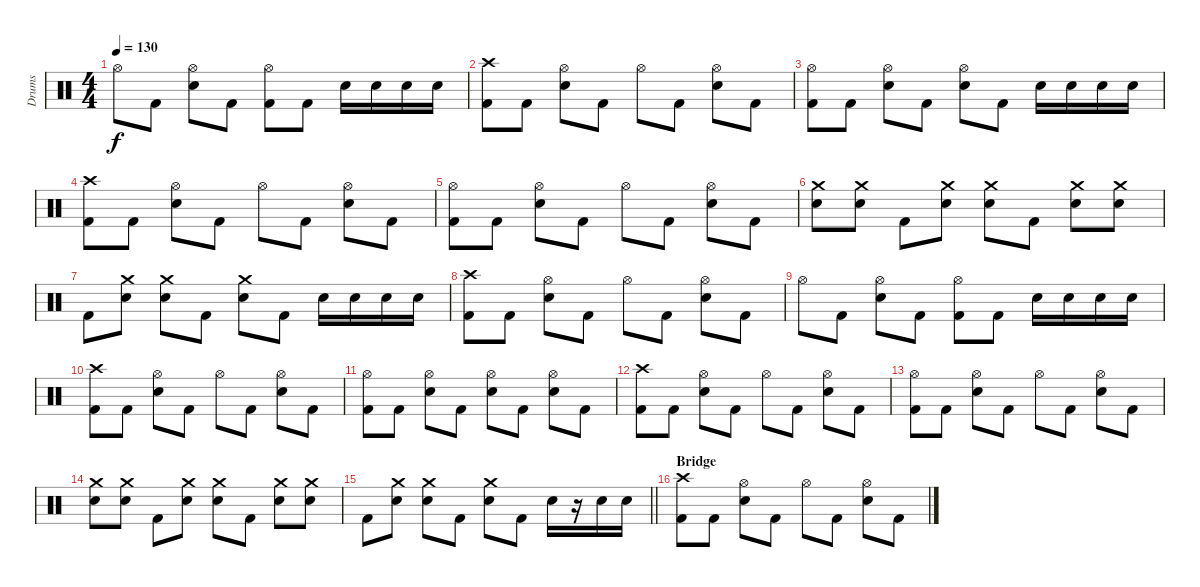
\track ("Drums" "Drums") {instrument percussion}
\staff {score}
\articulation defaults
\ts (4 4)
\tempo 130
\clef neutral
\ks c "Hi-Hat (open)".8{dy f} "Kick (hit) 2".8
("Hi-Hat (open)" "Electric Snare (hit)").8 "Kick (hit) 2".8 ("Hi-Hat (open)" "Kick (hit) 2").8 "Kick (hit) 2".8 "Electric Snare (hit)".16 "Electric Snare (hit)".16 "Electric Snare (hit)".16 "Electric Snare (hit)".16 |
("Crash high (hit)" "Kick (hit) 2").8 "Kick (hit) 2".8 ("Hi-Hat (open)" "Electric Snare (hit)").8 "Kick (hit) 2".8 "Hi-Hat (open)".8 "Kick (hit) 2".8 ("Hi-Hat (open)" "Electric Snare (hit)").8 "Kick (hit) 2".8 |
("Hi-Hat (open)" "Kick (hit) 2").8 "Kick (hit) 2".8 ("Hi-Hat (open)" "Electric Snare (hit)").8 "Kick (hit) 2".8 ("Hi-Hat (open)" "Electric Snare (hit)").8 "Kick (hit) 2".8 "Electric Snare (hit)".16 "Electric Snare (hit)".16 "Electric Snare (hit)".16 "Electric Snare (hit)".16 |
("Crash high (hit)" "Kick (hit) 2").8 "Kick (hit) 2".8 ("Hi-Hat (open)" "Electric Snare (hit)").8 "Kick (hit) 2".8 "Hi-Hat (open)".8 "Kick (hit) 2".8 ("Hi-Hat (open)" "Electric Snare (hit)").8 "Kick (hit) 2".8 |
("Hi-Hat (open)" "Kick (hit) 2").8 "Kick (hit) 2".8 ("Hi-Hat (open)" "Electric Snare (hit)").8 "Kick (hit) 2".8 "Hi-Hat (open)".8 "Kick (hit) 2".8 ("Hi-Hat (open)" "Electric Snare (hit)").8 "Kick (hit) 2".8 |
("Crash medium (hit)" "Electric Snare (hit)").8 ("Crash medium (hit)" "Electric Snare (hit)").8 "Kick (hit) 2".8 ("Crash medium (hit)" "Electric Snare (hit)").8 ("Crash medium (hit)" "Electric Snare (hit)").8 "Kick (hit) 2".8 ("Crash medium (hit)" "Electric Snare (hit)").8 ("Crash medium (hit)" "Electric Snare (hit)").8 |
"Kick (hit) 2".8 ("Crash medium (hit)" "Electric Snare (hit)").8 ("Crash medium (hit)" "Electric Snare (hit)").8 "Kick (hit) 2".8 ("Crash medium (hit)" "Electric Snare (hit)").8 "Kick (hit) 2".8 "Electric Snare (hit)".16 "Electric Snare (hit)".16 "Electric Snare (hit)".16 "Electric Snare (hit)".16 |
("Crash high (hit)" "Kick (hit) 2").8 "Kick (hit) 2".8 ("Hi-Hat (open)" "Electric Snare (hit)").8 "Kick (hit) 2".8 "Hi-Hat (open)".8 "Kick (hit) 2".8 ("Hi-Hat (open)" "Electric Snare (hit)").8 "Kick (hit) 2".8 |
"Hi-Hat (open)".8 "Kick (hit) 2".8 ("Hi-Hat (open)" "Electric Snare (hit)").8 "Kick (hit) 2".8 ("Hi-Hat (open)" "Kick (hit) 2").8 "Kick (hit) 2".8 "Electric Snare (hit)".16 "Electric Snare (hit)".16 "Electric Snare (hit)".16 "Electric Snare (hit)".16 |
("Crash high (hit)" "Kick (hit) 2").8 "Kick (hit) 2".8 ("Hi-Hat (open)" "Electric Snare (hit)").8 "Kick (hit) 2".8 "Hi-Hat (open)".8 "Kick (hit) 2".8 ("Hi-Hat (open)" "Electric Snare (hit)").8 "Kick (hit) 2".8 |
("Hi-Hat (open)" "Kick (hit) 2").8 "Kick (hit) 2".8 ("Hi-Hat (open)" "Electric Snare (hit)").8 "Kick (hit) 2".8 ("Hi-Hat (open)" "Electric Snare (hit)").8 "Kick (hit) 2".8 ("Hi-Hat (open)" "Electric Snare (hit)").8 "Kick (hit) 2".8 |
("Crash high (hit)" "Kick (hit) 2").8 "Kick (hit) 2".8 ("Hi-Hat (open)" "Electric Snare (hit)").8 "Kick (hit) 2".8 "Hi-Hat (open)".8 "Kick (hit) 2".8 ("Hi-Hat (open)" "Electric Snare (hit)").8 "Kick (hit) 2".8 |
("Hi-Hat (open)" "Kick (hit) 2").8 "Kick (hit) 2".8 ("Hi-Hat (open)" "Electric Snare (hit)").8 "Kick (hit) 2".8 "Hi-Hat (open)".8 "Kick (hit) 2".8 ("Hi-Hat (open)" "Electric Snare (hit)").8 "Kick (hit) 2".8 |
("Crash medium (hit)" "Electric Snare (hit)").8 ("Crash medium (hit)" "Electric Snare (hit)").8 "Kick (hit) 2".8 ("Crash medium (hit)" "Electric Snare (hit)").8 ("Crash medium (hit)" "Electric Snare (hit)").8 "Kick (hit) 2".8 ("Crash medium (hit)" "Electric Snare (hit)").8 ("Crash medium (hit)" "Electric Snare (hit)").8 |
\barLineRight lightlight "Kick (hit) 2".8
("Crash medium (hit)" "Electric Snare (hit)").8 ("Crash medium (hit)" "Electric Snare (hit)").8 "Kick (hit) 2".8 ("Crash medium (hit)" "Electric Snare (hit)").8 "Kick (hit) 2".8 "Electric Snare (hit)".16 r.16 "Electric Snare (hit)".16 "Electric Snare (hit)".16 |
\section ("" "Bridge")
("Crash high (hit)" "Kick (hit) 2").8 "Kick (hit) 2".8 ("Hi-Hat (open)" "Electric Snare (hit)").8 "Kick (hit) 2".8 "Hi-Hat (open)".8 "Kick (hit) 2".8 ("Hi-Hat (open)" "Electric Snare (hit)").8 "Kick (hit) 2".8
